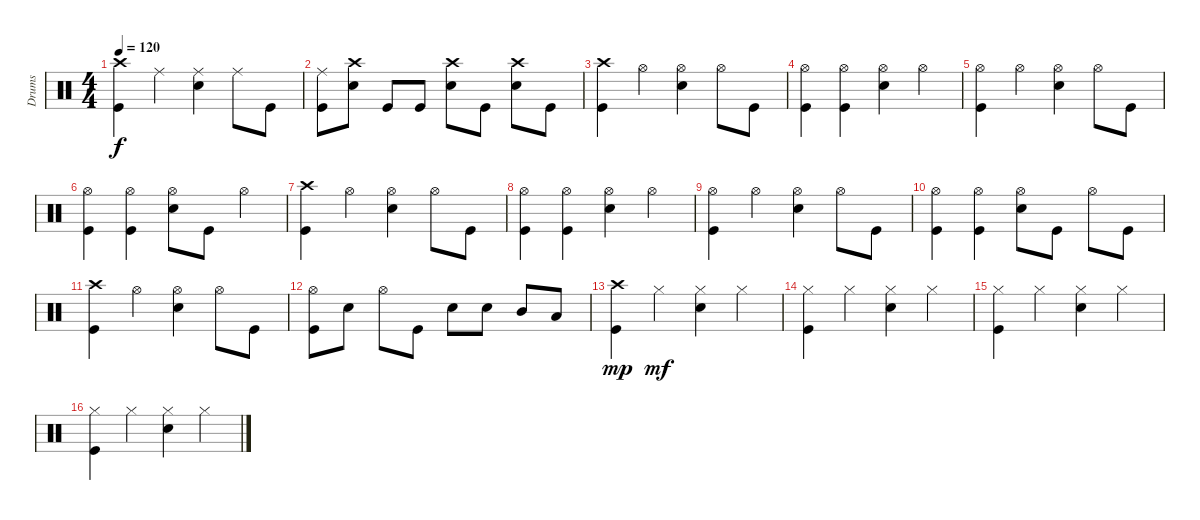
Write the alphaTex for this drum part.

\track ("Drums" "Drums") {instrument percussion}
\staff {score}
\articulation defaults
\ts (4 4)
\tempo 120
\clef neutral
\ks c
("Crash high (hit)" "Kick (hit)").4{dy f} "Ride (middle)".4 ("Ride (middle)" "Snare (hit) 2").4 "Ride (middle)".8 "Kick (hit)".8 |
("Ride (middle)" "Kick (hit)").8 ("Crash high (hit)" "Snare (hit) 2").8 "Kick (hit)".8 "Kick (hit)".8 ("Crash high (hit)" "Snare (hit) 2").8 "Kick (hit)".8 ("Crash high (hit)" "Snare (hit) 2").8 "Kick (hit)".8 |
("Crash high (hit)" "Kick (hit)").4 "Hi-Hat (open)".4 ("Hi-Hat (open)" "Snare (hit) 2").4 "Hi-Hat (open)".8 "Kick (hit)".8 |
("Hi-Hat (open)" "Kick (hit)").4 ("Hi-Hat (open)" "Kick (hit)").4 ("Hi-Hat (open)" "Snare (hit) 2").4 "Hi-Hat (open)".4 |
("Hi-Hat (open)" "Kick (hit)").4 "Hi-Hat (open)".4 ("Hi-Hat (open)" "Snare (hit) 2").4 "Hi-Hat (open)".8 "Kick (hit)".8 |
("Hi-Hat (open)" "Kick (hit)").4 ("Hi-Hat (open)" "Kick (hit)").4 ("Hi-Hat (open)" "Snare (hit) 2").8 "Kick (hit)".8 "Hi-Hat (open)".4 |
("Crash high (hit)" "Kick (hit)").4 "Hi-Hat (open)".4 ("Hi-Hat (open)" "Snare (hit) 2").4 "Hi-Hat (open)".8 "Kick (hit)".8 |
("Hi-Hat (open)" "Kick (hit)").4 ("Hi-Hat (open)" "Kick (hit)").4 ("Hi-Hat (open)" "Snare (hit) 2").4 "Hi-Hat (open)".4 |
("Hi-Hat (open)" "Kick (hit)").4 "Hi-Hat (open)".4 ("Hi-Hat (open)" "Snare (hit) 2").4 "Hi-Hat (open)".8 "Kick (hit)".8 |
("Hi-Hat (open)" "Kick (hit)").4 ("Hi-Hat (open)" "Kick (hit)").4 ("Hi-Hat (open)" "Snare (hit) 2").8 "Kick (hit)".8 "Hi-Hat (open)".8 "Kick (hit)".8 |
("Crash high (hit)" "Kick (hit)").4 "Hi-Hat (open)".4 ("Hi-Hat (open)" "Snare (hit) 2").4 "Hi-Hat (open)".8 "Kick (hit)".8 |
("Hi-Hat (open)" "Kick (hit)").8 "Snare (hit) 2".8 "Hi-Hat (open)".8 "Kick (hit)".8 "Snare (hit) 2".8 "Snare (hit) 2".8 "Mid Tom (hit)".8 "Low Tom (hit)".8 |
("Crash high (hit)" "Kick (hit)").4{dy mp} "Hi-Hat (closed)".4{dy mf} ("Hi-Hat (closed)" "Snare (hit) 2").4 "Hi-Hat (closed)".4 |
("Hi-Hat (closed)" "Kick (hit)").4 "Hi-Hat (closed)".4 ("Hi-Hat (closed)" "Snare (hit) 2").4 "Hi-Hat (closed)".4 |
("Hi-Hat (closed)" "Kick (hit)").4 "Hi-Hat (closed)".4 ("Hi-Hat (closed)" "Snare (hit) 2").4 "Hi-Hat (closed)".4 |
("Hi-Hat (closed)" "Kick (hit)").4 "Hi-Hat (closed)".4 ("Hi-Hat (closed)" "Snare (hit) 2").4 "Hi-Hat (closed)".4
